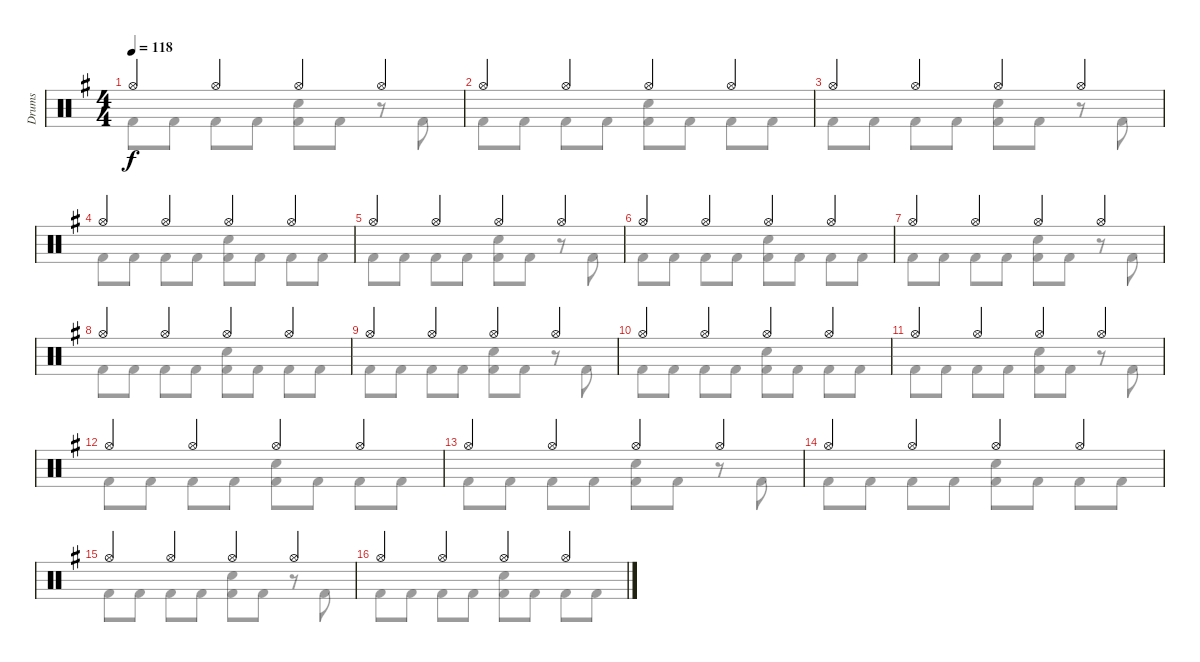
\track ("Drums" "Drums") {instrument percussion}
\staff {score}
\articulation defaults
\voice
\ts (4 4)
\tempo 118
\clef neutral
\ks eminor "Hi-Hat (open)".4{dy f} "Hi-Hat (open)".4 "Hi-Hat (open)".4 "Hi-Hat (open)".4
|
"Hi-Hat (open)".4 "Hi-Hat (open)".4 "Hi-Hat (open)".4 "Hi-Hat (open)".4 |
"Hi-Hat (open)".4 "Hi-Hat (open)".4 "Hi-Hat (open)".4 "Hi-Hat (open)".4 |
"Hi-Hat (open)".4 "Hi-Hat (open)".4 "Hi-Hat (open)".4 "Hi-Hat (open)".4 |
"Hi-Hat (open)".4 "Hi-Hat (open)".4 "Hi-Hat (open)".4 "Hi-Hat (open)".4 |
"Hi-Hat (open)".4 "Hi-Hat (open)".4 "Hi-Hat (open)".4 "Hi-Hat (open)".4 |
"Hi-Hat (open)".4 "Hi-Hat (open)".4 "Hi-Hat (open)".4 "Hi-Hat (open)".4 |
"Hi-Hat (open)".4 "Hi-Hat (open)".4 "Hi-Hat (open)".4 "Hi-Hat (open)".4 |
"Hi-Hat (open)".4 "Hi-Hat (open)".4 "Hi-Hat (open)".4 "Hi-Hat (open)".4 |
"Hi-Hat (open)".4 "Hi-Hat (open)".4 "Hi-Hat (open)".4 "Hi-Hat (open)".4 |
"Hi-Hat (open)".4 "Hi-Hat (open)".4 "Hi-Hat (open)".4 "Hi-Hat (open)".4 |
"Hi-Hat (open)".4 "Hi-Hat (open)".4 "Hi-Hat (open)".4 "Hi-Hat (open)".4 |
"Hi-Hat (open)".4 "Hi-Hat (open)".4 "Hi-Hat (open)".4 "Hi-Hat (open)".4 |
"Hi-Hat (open)".4 "Hi-Hat (open)".4 "Hi-Hat (open)".4 "Hi-Hat (open)".4 |
"Hi-Hat (open)".4 "Hi-Hat (open)".4 "Hi-Hat (open)".4 "Hi-Hat (open)".4 |
"Hi-Hat (open)".4 "Hi-Hat (open)".4 "Hi-Hat (open)".4 "Hi-Hat (open)".4
\voice
\clef neutral
\ottava regular
\simile none
\ks eminor "Kick (hit) 2".8{dy f} "Kick (hit) 2".8 "Kick (hit) 2".8 "Kick (hit) 2".8
("Kick (hit) 2" "Electric Snare (hit)").8 "Kick (hit) 2".8 r.8 "Kick (hit) 2".8 |
"Kick (hit) 2".8 "Kick (hit) 2".8 "Kick (hit) 2".8 "Kick (hit) 2".8 ("Kick (hit) 2" "Electric Snare (hit)").8 "Kick (hit) 2".8 "Kick (hit) 2".8 "Kick (hit) 2".8 |
"Kick (hit) 2".8 "Kick (hit) 2".8 "Kick (hit) 2".8 "Kick (hit) 2".8 ("Kick (hit) 2" "Electric Snare (hit)").8 "Kick (hit) 2".8 r.8 "Kick (hit) 2".8 |
"Kick (hit) 2".8 "Kick (hit) 2".8 "Kick (hit) 2".8 "Kick (hit) 2".8 ("Kick (hit) 2" "Electric Snare (hit)").8 "Kick (hit) 2".8 "Kick (hit) 2".8 "Kick (hit) 2".8 |
"Kick (hit) 2".8 "Kick (hit) 2".8 "Kick (hit) 2".8 "Kick (hit) 2".8 ("Kick (hit) 2" "Electric Snare (hit)").8 "Kick (hit) 2".8 r.8 "Kick (hit) 2".8 |
"Kick (hit) 2".8 "Kick (hit) 2".8 "Kick (hit) 2".8 "Kick (hit) 2".8 ("Kick (hit) 2" "Electric Snare (hit)").8 "Kick (hit) 2".8 "Kick (hit) 2".8 "Kick (hit) 2".8 |
"Kick (hit) 2".8 "Kick (hit) 2".8 "Kick (hit) 2".8 "Kick (hit) 2".8 ("Kick (hit) 2" "Electric Snare (hit)").8 "Kick (hit) 2".8 r.8 "Kick (hit) 2".8 |
"Kick (hit) 2".8 "Kick (hit) 2".8 "Kick (hit) 2".8 "Kick (hit) 2".8 ("Kick (hit) 2" "Electric Snare (hit)").8 "Kick (hit) 2".8 "Kick (hit) 2".8 "Kick (hit) 2".8 |
"Kick (hit) 2".8 "Kick (hit) 2".8 "Kick (hit) 2".8 "Kick (hit) 2".8 ("Kick (hit) 2" "Electric Snare (hit)").8 "Kick (hit) 2".8 r.8 "Kick (hit) 2".8 |
"Kick (hit) 2".8 "Kick (hit) 2".8 "Kick (hit) 2".8 "Kick (hit) 2".8 ("Kick (hit) 2" "Electric Snare (hit)").8 "Kick (hit) 2".8 "Kick (hit) 2".8 "Kick (hit) 2".8 |
"Kick (hit) 2".8 "Kick (hit) 2".8 "Kick (hit) 2".8 "Kick (hit) 2".8 ("Kick (hit) 2" "Electric Snare (hit)").8 "Kick (hit) 2".8 r.8 "Kick (hit) 2".8 |
"Kick (hit) 2".8 "Kick (hit) 2".8 "Kick (hit) 2".8 "Kick (hit) 2".8 ("Kick (hit) 2" "Electric Snare (hit)").8 "Kick (hit) 2".8 "Kick (hit) 2".8 "Kick (hit) 2".8 |
"Kick (hit) 2".8 "Kick (hit) 2".8 "Kick (hit) 2".8 "Kick (hit) 2".8 ("Kick (hit) 2" "Electric Snare (hit)").8 "Kick (hit) 2".8 r.8 "Kick (hit) 2".8 |
"Kick (hit) 2".8 "Kick (hit) 2".8 "Kick (hit) 2".8 "Kick (hit) 2".8 ("Kick (hit) 2" "Electric Snare (hit)").8 "Kick (hit) 2".8 "Kick (hit) 2".8 "Kick (hit) 2".8 |
"Kick (hit) 2".8 "Kick (hit) 2".8 "Kick (hit) 2".8 "Kick (hit) 2".8 ("Kick (hit) 2" "Electric Snare (hit)").8 "Kick (hit) 2".8 r.8 "Kick (hit) 2".8 |
"Kick (hit) 2".8 "Kick (hit) 2".8 "Kick (hit) 2".8 "Kick (hit) 2".8 ("Kick (hit) 2" "Electric Snare (hit)").8 "Kick (hit) 2".8 "Kick (hit) 2".8 "Kick (hit) 2".8
